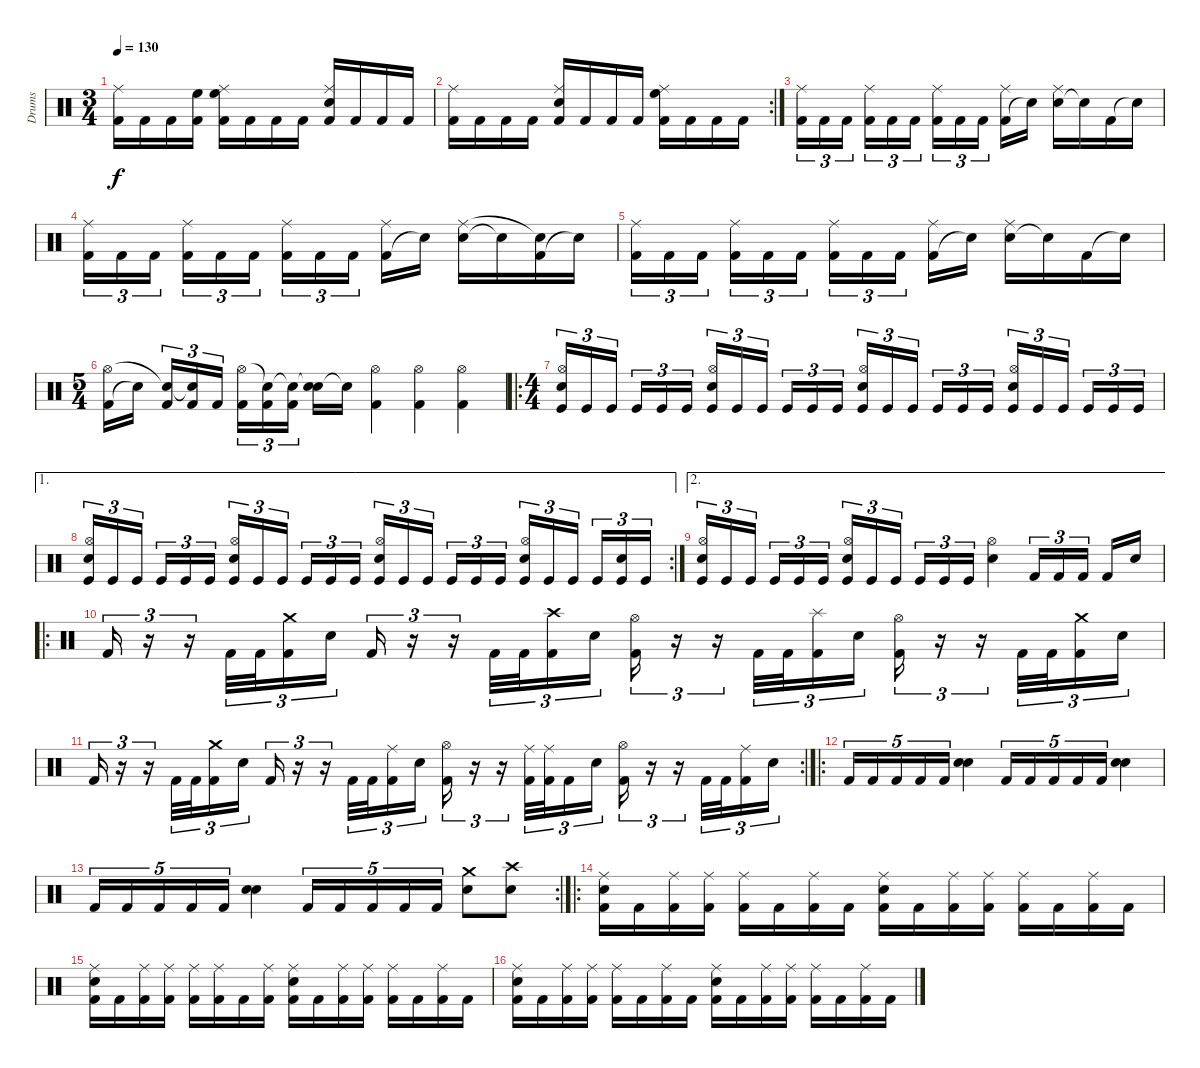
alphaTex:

\track ("Drums" "Drums") {instrument percussion}
\staff {score}
\articulation defaults
\ts (3 4)
\tempo 130
\clef neutral
\ks c
("Kick (hit) 2" "Ride (middle)").16{dy f} "Kick (hit) 2".16 "Kick (hit) 2".16 ("Kick (hit) 2" "High Floor Tom (hit)").16 ("Kick (hit) 2" "High Floor Tom (hit)" "Ride (middle)").16 "Kick (hit) 2".16 "Kick (hit) 2".16 "Kick (hit) 2".16 ("Kick (hit) 2" "Snare (hit) 2" "Ride (middle)").16 "Kick (hit) 2".16 "Kick (hit) 2".16 "Kick (hit) 2".16 |
\rc 2
("Kick (hit) 2" "Ride (middle)").16 "Kick (hit) 2".16 "Kick (hit) 2".16 "Kick (hit) 2".16 ("Kick (hit) 2" "Snare (hit) 2" "Ride (middle)").16 "Kick (hit) 2".16 "Kick (hit) 2".16 "Kick (hit) 2".16 ("Kick (hit) 2" "High Floor Tom (hit)" "Ride (middle)").16 "Kick (hit) 2".16 "Kick (hit) 2".16 "Kick (hit) 2".16 |
("Kick (hit) 2" "Ride (middle)").16{tu (3 2)} "Kick (hit) 2".16{tu (3 2)} "Kick (hit) 2".16{tu (3 2)} ("Kick (hit) 2" "Ride (middle)").16{tu (3 2)} "Kick (hit) 2".16{tu (3 2)} "Kick (hit) 2".16{tu (3 2)} ("Kick (hit) 2" "Ride (middle)").16{tu (3 2)} "Kick (hit) 2".16{tu (3 2)} "Kick (hit) 2".16{tu (3 2)} ("Kick (hit) 2" "Ride (middle)").16 "Snare (hit)"{t}.16 ("Snare (hit) 2" "Ride (middle)").16 "Snare (hit)"{t}.16 "Kick (hit) 2".16 "Snare (hit)"{t}.16 |
("Kick (hit) 2" "Ride (middle)").16{tu (3 2)} "Kick (hit) 2".16{tu (3 2)} "Kick (hit) 2".16{tu (3 2)} ("Kick (hit) 2" "Ride (middle)").16{tu (3 2)} "Kick (hit) 2".16{tu (3 2)} "Kick (hit) 2".16{tu (3 2)} ("Kick (hit) 2" "Ride (middle)").16{tu (3 2)} "Kick (hit) 2".16{tu (3 2)} "Kick (hit) 2".16{tu (3 2)} ("Kick (hit) 2" "Ride (middle)").16 "Snare (hit)"{t}.16 ("Snare (hit) 2" "Ride (middle)").16 "Snare (hit)"{t}.16 ("Kick (hit) 2" "Snare (hit)"{t}).16 "Snare (hit)"{t}.16 |
("Kick (hit) 2" "Ride (middle)").16{tu (3 2)} "Kick (hit) 2".16{tu (3 2)} "Kick (hit) 2".16{tu (3 2)} ("Kick (hit) 2" "Ride (middle)").16{tu (3 2)} "Kick (hit) 2".16{tu (3 2)} "Kick (hit) 2".16{tu (3 2)} ("Kick (hit) 2" "Ride (middle)").16{tu (3 2)} "Kick (hit) 2".16{tu (3 2)} "Kick (hit) 2".16{tu (3 2)} ("Kick (hit) 2" "Ride (middle)").16 "Snare (hit)"{t}.16 ("Snare (hit) 2" "Ride (middle)").16 "Snare (hit)"{t}.16 "Kick (hit) 2".16 "Snare (hit)"{t}.16 |
\ts (5 4)
("Kick (hit) 2" "Hi-Hat (open)").16 "Snare (hit)"{t}.16 ("Kick (hit) 2" "Snare (hit)"{t}).16{tu (3 2)} ("Kick (hit) 2" "Snare (hit)"{t}).16{tu (3 2)} "Kick (hit) 2".16{tu (3 2)} ("Kick (hit) 2" "Hi-Hat (open)").16{tu (3 2)} ("Kick (hit) 2" "Snare (hit)"{t}).16{tu (3 2)} ("Kick (hit) 2" "Snare (hit)"{t}).16{tu (3 2)} ("Snare (hit) 2" "Snare (hit)"{t}).16 "Snare (hit)"{t}.16 ("Kick (hit) 2" "Hi-Hat (open)").4 ("Kick (hit) 2" "Hi-Hat (open)").4 ("Kick (hit) 2" "Hi-Hat (open)").4 |
\ro
\ts (4 4)
("Kick (hit)" "Snare (hit) 2" "Hi-Hat (open)").16{tu (3 2)} "Kick (hit)".16{tu (3 2)} "Kick (hit)".16{tu (3 2)} "Kick (hit)".16{tu (3 2)} "Kick (hit)".16{tu (3 2)} "Kick (hit)".16{tu (3 2)} ("Kick (hit)" "Snare (hit) 2" "Hi-Hat (open)").16{tu (3 2)} "Kick (hit)".16{tu (3 2)} "Kick (hit)".16{tu (3 2)} "Kick (hit)".16{tu (3 2)} "Kick (hit)".16{tu (3 2)} "Kick (hit)".16{tu (3 2)} ("Kick (hit)" "Snare (hit) 2" "Hi-Hat (open)").16{tu (3 2)} "Kick (hit)".16{tu (3 2)} "Kick (hit)".16{tu (3 2)} "Kick (hit)".16{tu (3 2)} "Kick (hit)".16{tu (3 2)} "Kick (hit)".16{tu (3 2)} ("Kick (hit)" "Snare (hit) 2" "Hi-Hat (open)").16{tu (3 2)} "Kick (hit)".16{tu (3 2)} "Kick (hit)".16{tu (3 2)} "Kick (hit)".16{tu (3 2)} "Kick (hit)".16{tu (3 2)} "Kick (hit)".16{tu (3 2)} |
\ae 1
\rc 2
("Kick (hit)" "Snare (hit) 2" "Hi-Hat (open)").16{tu (3 2)} "Kick (hit)".16{tu (3 2)} "Kick (hit)".16{tu (3 2)} "Kick (hit)".16{tu (3 2)} "Kick (hit)".16{tu (3 2)} "Kick (hit)".16{tu (3 2)} ("Kick (hit)" "Snare (hit) 2" "Hi-Hat (open)").16{tu (3 2)} "Kick (hit)".16{tu (3 2)} "Kick (hit)".16{tu (3 2)} "Kick (hit)".16{tu (3 2)} "Kick (hit)".16{tu (3 2)} "Kick (hit)".16{tu (3 2)} ("Kick (hit)" "Snare (hit) 2" "Hi-Hat (open)").16{tu (3 2)} "Kick (hit)".16{tu (3 2)} "Kick (hit)".16{tu (3 2)} "Kick (hit)".16{tu (3 2)} "Kick (hit)".16{tu (3 2)} "Kick (hit)".16{tu (3 2)} ("Kick (hit)" "Snare (hit) 2" "Hi-Hat (open)").16{tu (3 2)} "Kick (hit)".16{tu (3 2)} "Kick (hit)".16{tu (3 2)} "Kick (hit)".16{tu (3 2)} ("Kick (hit)" "Snare (hit) 2").16{tu (3 2)} "Kick (hit)".16{tu (3 2)} |
\ae 2
("Kick (hit)" "Snare (hit) 2" "Hi-Hat (open)").16{tu (3 2)} "Kick (hit)".16{tu (3 2)} "Kick (hit)".16{tu (3 2)} "Kick (hit)".16{tu (3 2)} "Kick (hit)".16{tu (3 2)} "Kick (hit)".16{tu (3 2)} ("Kick (hit)" "Snare (hit) 2" "Hi-Hat (open)").16{tu (3 2)} "Kick (hit)".16{tu (3 2)} "Kick (hit)".16{tu (3 2)} "Kick (hit)".16{tu (3 2)} "Kick (hit)".16{tu (3 2)} "Kick (hit)".16{tu (3 2)} ("Snare (hit) 2" "Hi-Hat (open)").4 "Kick (hit) 2".16{tu (3 2)} "Kick (hit) 2".16{tu (3 2)} "Kick (hit) 2".16{tu (3 2)} "Kick (hit) 2".16 "Snare (hit) 2".16 |
\ro "Kick (hit) 2".16{tu (3 2)}
r.16{tu (3 2)} r.16{tu (3 2)} "Kick (hit) 2".32{tu (3 2)} "Kick (hit) 2".32{tu (3 2)} ("Kick (hit) 2" "Crash medium (hit)").16{tu (3 2)} "Snare (hit) 2".16{tu (3 2)} "Kick (hit) 2".16{tu (3 2)} r.16{tu (3 2)} r.16{tu (3 2)} "Kick (hit) 2".32{tu (3 2)} "Kick (hit) 2".32{tu (3 2)} ("Kick (hit) 2" "Crash high (hit)").16{tu (3 2)} "Snare (hit) 2".16{tu (3 2)} ("Kick (hit) 2" "Hi-Hat (open)").16{tu (3 2)} r.16{tu (3 2)} r.16{tu (3 2)} "Kick (hit) 2".32{tu (3 2)} "Kick (hit) 2".32{tu (3 2)} ("Kick (hit) 2" "Splash (hit)").16{tu (3 2)} "Snare (hit) 2".16{tu (3 2)} ("Kick (hit) 2" "Hi-Hat (open)").16{tu (3 2)} r.16{tu (3 2)} r.16{tu (3 2)} "Kick (hit) 2".32{tu (3 2)} "Kick (hit) 2".32{tu (3 2)} ("Kick (hit) 2" "Crash medium (hit)").16{tu (3 2)} "Snare (hit) 2".16{tu (3 2)} |
\rc 2 "Kick (hit) 2".16{tu (3 2)}
r.16{tu (3 2)} r.16{tu (3 2)} "Kick (hit) 2".32{tu (3 2)} "Kick (hit) 2".32{tu (3 2)} ("Kick (hit) 2" "Crash medium (hit)").16{tu (3 2)} "Snare (hit) 2".16{tu (3 2)} "Kick (hit) 2".16{tu (3 2)} r.16{tu (3 2)} r.16{tu (3 2)} "Kick (hit) 2".32{tu (3 2)} "Kick (hit) 2".32{tu (3 2)} ("Kick (hit) 2" "Ride (middle)").16{tu (3 2)} "Snare (hit) 2".16{tu (3 2)} ("Kick (hit) 2" "Hi-Hat (open)").16{tu (3 2)} r.16{tu (3 2)} r.16{tu (3 2)} ("Kick (hit) 2" "Ride (middle)").32{tu (3 2)} ("Kick (hit) 2" "Ride (middle)").32{tu (3 2)} "Kick (hit) 2".16{tu (3 2)} "Snare (hit) 2".16{tu (3 2)} ("Kick (hit) 2" "Hi-Hat (open)").16{tu (3 2)} r.16{tu (3 2)} r.16{tu (3 2)} "Kick (hit) 2".32{tu (3 2)} "Kick (hit) 2".32{tu (3 2)} ("Kick (hit) 2" "Ride (middle)").16{tu (3 2)} "Snare (hit) 2".16{tu (3 2)} |
\ro "Kick (hit) 2".16{tu (5 4)} "Kick (hit) 2".16{tu (5 4)} "Kick (hit) 2".16{tu (5 4)} "Kick (hit) 2".16{tu (5 4)} "Kick (hit) 2".16{tu (5 4)}
("Snare (hit) 2" "Snare (hit) 2").4 "Kick (hit) 2".16{tu (5 4)} "Kick (hit) 2".16{tu (5 4)} "Kick (hit) 2".16{tu (5 4)} "Kick (hit) 2".16{tu (5 4)} "Kick (hit) 2".16{tu (5 4)} ("Snare (hit) 2" "Snare (hit) 2").4 |
\rc 2 "Kick (hit) 2".16{tu (5 4)} "Kick (hit) 2".16{tu (5 4)} "Kick (hit) 2".16{tu (5 4)} "Kick (hit) 2".16{tu (5 4)} "Kick (hit) 2".16{tu (5 4)}
("Snare (hit) 2" "Snare (hit) 2").4 "Kick (hit) 2".16{tu (5 4)} "Kick (hit) 2".16{tu (5 4)} "Kick (hit) 2".16{tu (5 4)} "Kick (hit) 2".16{tu (5 4)} "Kick (hit) 2".16{tu (5 4)} ("Snare (hit) 2" "Crash medium (hit)").8 ("Snare (hit) 2" "Crash high (hit)").8 |
\ro
("Kick (hit) 2" "Snare (hit) 2" "Ride (middle)").16 "Kick (hit) 2".16 ("Kick (hit) 2" "Ride (middle)").16 ("Kick (hit) 2" "Ride (middle)").16 ("Kick (hit) 2" "Ride (middle)").16 "Kick (hit) 2".16 ("Kick (hit) 2" "Ride (middle)").16 "Kick (hit) 2".16 ("Kick (hit) 2" "Snare (hit) 2" "Ride (middle)").16 "Kick (hit) 2".16 ("Kick (hit) 2" "Ride (middle)").16 ("Kick (hit) 2" "Ride (middle)").16 ("Kick (hit) 2" "Ride (middle)").16 "Kick (hit) 2".16 ("Kick (hit) 2" "Ride (middle)").16 "Kick (hit) 2".16 |
("Kick (hit) 2" "Snare (hit) 2" "Ride (middle)").16 "Kick (hit) 2".16 ("Kick (hit) 2" "Ride (middle)").16 ("Kick (hit) 2" "Ride (middle)").16 ("Kick (hit) 2" "Ride (middle)").16 ("Kick (hit) 2" "Ride (middle)").16 "Kick (hit) 2".16 ("Kick (hit) 2" "Ride (middle)").16 ("Kick (hit) 2" "Snare (hit) 2" "Ride (middle)").16 "Kick (hit) 2".16 ("Kick (hit) 2" "Ride (middle)").16 ("Kick (hit) 2" "Ride (middle)").16 ("Kick (hit) 2" "Ride (middle)").16 "Kick (hit) 2".16 ("Kick (hit) 2" "Ride (middle)").16 "Kick (hit) 2".16 |
("Kick (hit) 2" "Snare (hit) 2" "Ride (middle)").16 "Kick (hit) 2".16 ("Kick (hit) 2" "Ride (middle)").16 ("Kick (hit) 2" "Ride (middle)").16 ("Kick (hit) 2" "Ride (middle)").16 "Kick (hit) 2".16 ("Kick (hit) 2" "Ride (middle)").16 "Kick (hit) 2".16 ("Kick (hit) 2" "Snare (hit) 2" "Ride (middle)").16 "Kick (hit) 2".16 ("Kick (hit) 2" "Ride (middle)").16 ("Kick (hit) 2" "Ride (middle)").16 ("Kick (hit) 2" "Ride (middle)").16 "Kick (hit) 2".16 ("Kick (hit) 2" "Ride (middle)").16 "Kick (hit) 2".16
